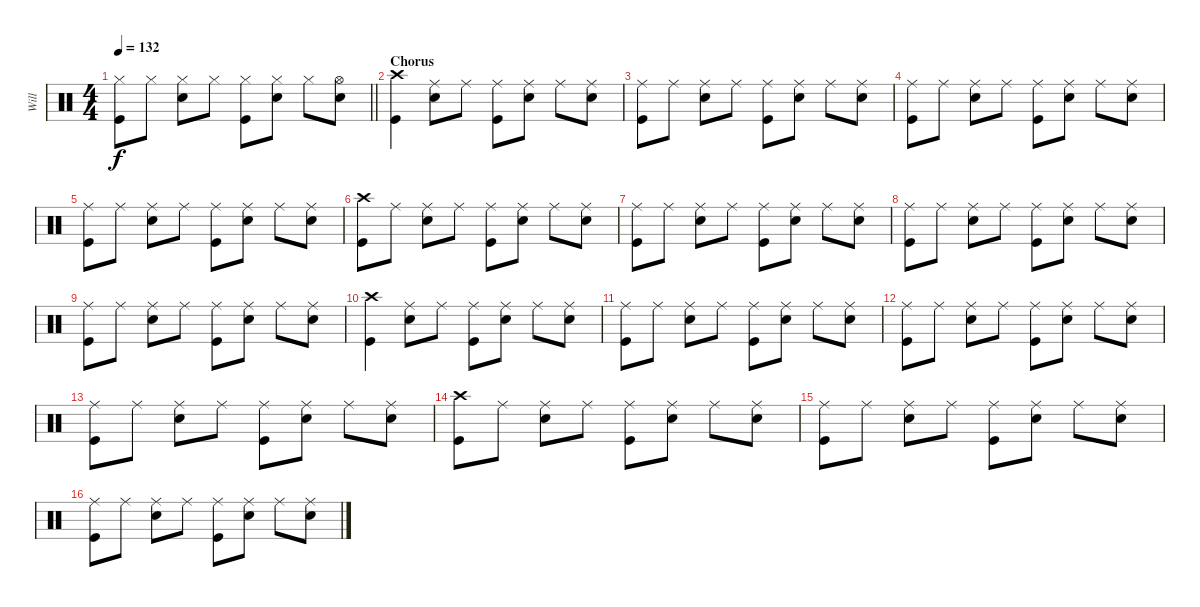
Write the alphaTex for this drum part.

\track ("Will" "Will") {instrument percussion}
\staff {score}
\articulation defaults
\ts (4 4)
\tempo 132
\clef neutral
\barLineRight lightlight
\ks c
("Hi-Hat (closed)" "Kick (hit)").8{dy f} "Hi-Hat (closed)".8 ("Hi-Hat (closed)" "Snare (hit) 2").8 "Hi-Hat (closed)".8 ("Hi-Hat (closed)" "Kick (hit)").8 ("Hi-Hat (closed)" "Snare (hit) 2").8 "Hi-Hat (closed)".8 ("Hi-Hat (open)" "Snare (hit) 2").8 |
\section ("" "Chorus")
("Crash high (hit)" "Kick (hit)").4 ("Ride (middle)" "Snare (hit) 2").8 "Ride (middle)".8 ("Ride (middle)" "Kick (hit)").8 ("Ride (middle)" "Snare (hit) 2").8 "Ride (middle)".8 ("Ride (middle)" "Snare (hit) 2").8 |
("Ride (middle)" "Kick (hit)").8 "Ride (middle)".8 ("Ride (middle)" "Snare (hit) 2").8 "Ride (middle)".8 ("Ride (middle)" "Kick (hit)").8 ("Ride (middle)" "Snare (hit) 2").8 "Ride (middle)".8 ("Ride (middle)" "Snare (hit) 2").8 |
("Ride (middle)" "Kick (hit)").8 "Ride (middle)".8 ("Ride (middle)" "Snare (hit) 2").8 "Ride (middle)".8 ("Ride (middle)" "Kick (hit)").8 ("Ride (middle)" "Snare (hit) 2").8 "Ride (middle)".8 ("Ride (middle)" "Snare (hit) 2").8 |
("Ride (middle)" "Kick (hit)").8 "Ride (middle)".8 ("Ride (middle)" "Snare (hit) 2").8 "Ride (middle)".8 ("Ride (middle)" "Kick (hit)").8 ("Ride (middle)" "Snare (hit) 2").8 "Ride (middle)".8 ("Ride (middle)" "Snare (hit) 2").8 |
("Crash high (hit)" "Kick (hit)").8 "Ride (middle)".8 ("Ride (middle)" "Snare (hit) 2").8 "Ride (middle)".8 ("Ride (middle)" "Kick (hit)").8 ("Ride (middle)" "Snare (hit) 2").8 "Ride (middle)".8 ("Ride (middle)" "Snare (hit) 2").8 |
("Ride (middle)" "Kick (hit)").8 "Ride (middle)".8 ("Ride (middle)" "Snare (hit) 2").8 "Ride (middle)".8 ("Ride (middle)" "Kick (hit)").8 ("Ride (middle)" "Snare (hit) 2").8 "Ride (middle)".8 ("Ride (middle)" "Snare (hit) 2").8 |
("Ride (middle)" "Kick (hit)").8 "Ride (middle)".8 ("Ride (middle)" "Snare (hit) 2").8 "Ride (middle)".8 ("Ride (middle)" "Kick (hit)").8 ("Ride (middle)" "Snare (hit) 2").8 "Ride (middle)".8 ("Ride (middle)" "Snare (hit) 2").8 |
("Ride (middle)" "Kick (hit)").8 "Ride (middle)".8 ("Ride (middle)" "Snare (hit) 2").8 "Ride (middle)".8 ("Ride (middle)" "Kick (hit)").8 ("Ride (middle)" "Snare (hit) 2").8 "Ride (middle)".8 ("Ride (middle)" "Snare (hit) 2").8 |
("Crash high (hit)" "Kick (hit)").4 ("Ride (middle)" "Snare (hit) 2").8 "Ride (middle)".8 ("Ride (middle)" "Kick (hit)").8 ("Ride (middle)" "Snare (hit) 2").8 "Ride (middle)".8 ("Ride (middle)" "Snare (hit) 2").8 |
("Ride (middle)" "Kick (hit)").8 "Ride (middle)".8 ("Ride (middle)" "Snare (hit) 2").8 "Ride (middle)".8 ("Ride (middle)" "Kick (hit)").8 ("Ride (middle)" "Snare (hit) 2").8 "Ride (middle)".8 ("Ride (middle)" "Snare (hit) 2").8 |
("Ride (middle)" "Kick (hit)").8 "Ride (middle)".8 ("Ride (middle)" "Snare (hit) 2").8 "Ride (middle)".8 ("Ride (middle)" "Kick (hit)").8 ("Ride (middle)" "Snare (hit) 2").8 "Ride (middle)".8 ("Ride (middle)" "Snare (hit) 2").8 |
("Ride (middle)" "Kick (hit)").8 "Ride (middle)".8 ("Ride (middle)" "Snare (hit) 2").8 "Ride (middle)".8 ("Ride (middle)" "Kick (hit)").8 ("Ride (middle)" "Snare (hit) 2").8 "Ride (middle)".8 ("Ride (middle)" "Snare (hit) 2").8 |
("Crash high (hit)" "Kick (hit)").8 "Ride (middle)".8 ("Ride (middle)" "Snare (hit) 2").8 "Ride (middle)".8 ("Ride (middle)" "Kick (hit)").8 ("Ride (middle)" "Snare (hit) 2").8 "Ride (middle)".8 ("Ride (middle)" "Snare (hit) 2").8 |
("Ride (middle)" "Kick (hit)").8 "Ride (middle)".8 ("Ride (middle)" "Snare (hit) 2").8 "Ride (middle)".8 ("Ride (middle)" "Kick (hit)").8 ("Ride (middle)" "Snare (hit) 2").8 "Ride (middle)".8 ("Ride (middle)" "Snare (hit) 2").8 |
("Ride (middle)" "Kick (hit)").8 "Ride (middle)".8 ("Ride (middle)" "Snare (hit) 2").8 "Ride (middle)".8 ("Ride (middle)" "Kick (hit)").8 ("Ride (middle)" "Snare (hit) 2").8 "Ride (middle)".8 ("Ride (middle)" "Snare (hit) 2").8
